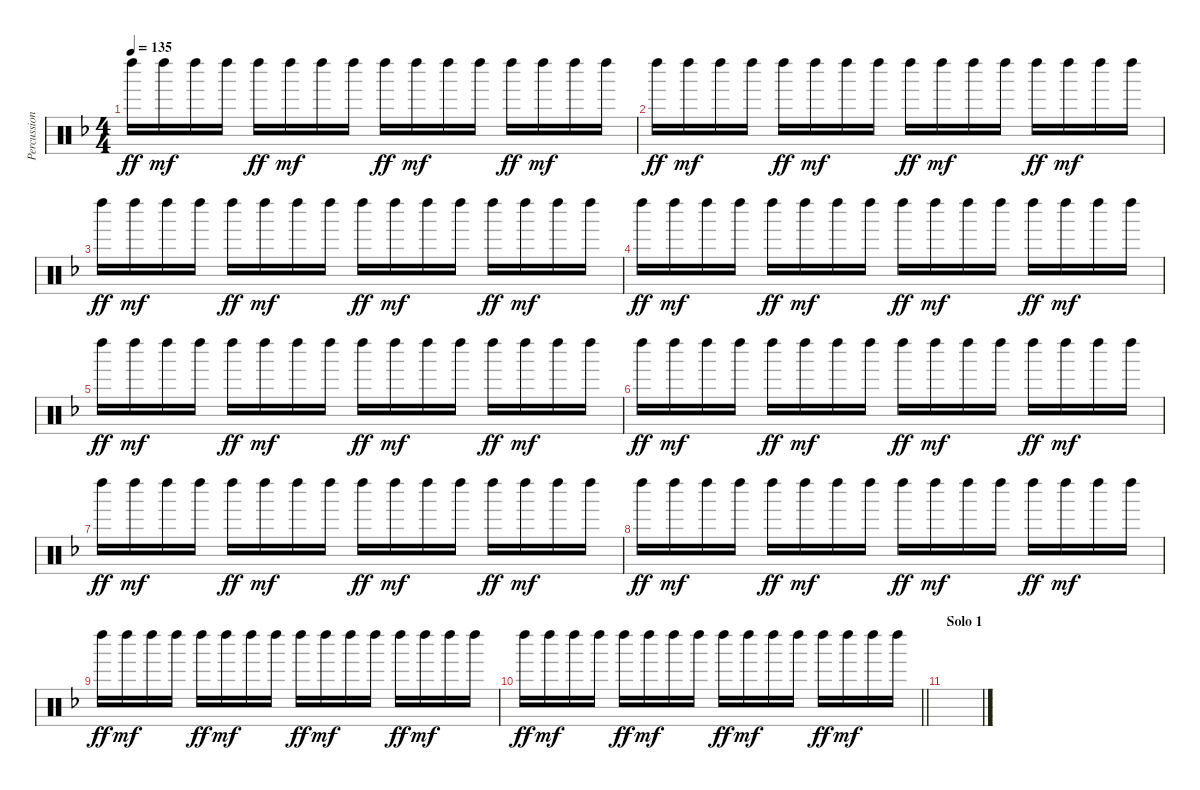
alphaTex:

\track ("Percussions" "Percussion") {instrument percussion}
\staff {score}
\articulation defaults
\ts (4 4)
\tempo 135
\clef neutral
\ks f "Left Maraca (hit)".16{dy ff} "Left Maraca (hit)".16{dy mf} "Left Maraca (hit)".16 "Left Maraca (hit)".16 "Left Maraca (hit)".16{dy ff} "Left Maraca (hit)".16{dy mf} "Left Maraca (hit)".16 "Left Maraca (hit)".16 "Left Maraca (hit)".16{dy ff} "Left Maraca (hit)".16{dy mf} "Left Maraca (hit)".16 "Left Maraca (hit)".16 "Left Maraca (hit)".16{dy ff} "Left Maraca (hit)".16{dy mf} "Left Maraca (hit)".16 "Left Maraca (hit)".16
|
"Left Maraca (hit)".16{dy ff} "Left Maraca (hit)".16{dy mf} "Left Maraca (hit)".16 "Left Maraca (hit)".16 "Left Maraca (hit)".16{dy ff} "Left Maraca (hit)".16{dy mf} "Left Maraca (hit)".16 "Left Maraca (hit)".16 "Left Maraca (hit)".16{dy ff} "Left Maraca (hit)".16{dy mf} "Left Maraca (hit)".16 "Left Maraca (hit)".16 "Left Maraca (hit)".16{dy ff} "Left Maraca (hit)".16{dy mf} "Left Maraca (hit)".16 "Left Maraca (hit)".16 |
"Left Maraca (hit)".16{dy ff} "Left Maraca (hit)".16{dy mf} "Left Maraca (hit)".16 "Left Maraca (hit)".16 "Left Maraca (hit)".16{dy ff} "Left Maraca (hit)".16{dy mf} "Left Maraca (hit)".16 "Left Maraca (hit)".16 "Left Maraca (hit)".16{dy ff} "Left Maraca (hit)".16{dy mf} "Left Maraca (hit)".16 "Left Maraca (hit)".16 "Left Maraca (hit)".16{dy ff} "Left Maraca (hit)".16{dy mf} "Left Maraca (hit)".16 "Left Maraca (hit)".16 |
"Left Maraca (hit)".16{dy ff} "Left Maraca (hit)".16{dy mf} "Left Maraca (hit)".16 "Left Maraca (hit)".16 "Left Maraca (hit)".16{dy ff} "Left Maraca (hit)".16{dy mf} "Left Maraca (hit)".16 "Left Maraca (hit)".16 "Left Maraca (hit)".16{dy ff} "Left Maraca (hit)".16{dy mf} "Left Maraca (hit)".16 "Left Maraca (hit)".16 "Left Maraca (hit)".16{dy ff} "Left Maraca (hit)".16{dy mf} "Left Maraca (hit)".16 "Left Maraca (hit)".16 |
"Left Maraca (hit)".16{dy ff} "Left Maraca (hit)".16{dy mf} "Left Maraca (hit)".16 "Left Maraca (hit)".16 "Left Maraca (hit)".16{dy ff} "Left Maraca (hit)".16{dy mf} "Left Maraca (hit)".16 "Left Maraca (hit)".16 "Left Maraca (hit)".16{dy ff} "Left Maraca (hit)".16{dy mf} "Left Maraca (hit)".16 "Left Maraca (hit)".16 "Left Maraca (hit)".16{dy ff} "Left Maraca (hit)".16{dy mf} "Left Maraca (hit)".16 "Left Maraca (hit)".16 |
"Left Maraca (hit)".16{dy ff} "Left Maraca (hit)".16{dy mf} "Left Maraca (hit)".16 "Left Maraca (hit)".16 "Left Maraca (hit)".16{dy ff} "Left Maraca (hit)".16{dy mf} "Left Maraca (hit)".16 "Left Maraca (hit)".16 "Left Maraca (hit)".16{dy ff} "Left Maraca (hit)".16{dy mf} "Left Maraca (hit)".16 "Left Maraca (hit)".16 "Left Maraca (hit)".16{dy ff} "Left Maraca (hit)".16{dy mf} "Left Maraca (hit)".16 "Left Maraca (hit)".16 |
"Left Maraca (hit)".16{dy ff} "Left Maraca (hit)".16{dy mf} "Left Maraca (hit)".16 "Left Maraca (hit)".16 "Left Maraca (hit)".16{dy ff} "Left Maraca (hit)".16{dy mf} "Left Maraca (hit)".16 "Left Maraca (hit)".16 "Left Maraca (hit)".16{dy ff} "Left Maraca (hit)".16{dy mf} "Left Maraca (hit)".16 "Left Maraca (hit)".16 "Left Maraca (hit)".16{dy ff} "Left Maraca (hit)".16{dy mf} "Left Maraca (hit)".16 "Left Maraca (hit)".16 |
"Left Maraca (hit)".16{dy ff} "Left Maraca (hit)".16{dy mf} "Left Maraca (hit)".16 "Left Maraca (hit)".16 "Left Maraca (hit)".16{dy ff} "Left Maraca (hit)".16{dy mf} "Left Maraca (hit)".16 "Left Maraca (hit)".16 "Left Maraca (hit)".16{dy ff} "Left Maraca (hit)".16{dy mf} "Left Maraca (hit)".16 "Left Maraca (hit)".16 "Left Maraca (hit)".16{dy ff} "Left Maraca (hit)".16{dy mf} "Left Maraca (hit)".16 "Left Maraca (hit)".16 |
"Left Maraca (hit)".16{dy ff} "Left Maraca (hit)".16{dy mf} "Left Maraca (hit)".16 "Left Maraca (hit)".16 "Left Maraca (hit)".16{dy ff} "Left Maraca (hit)".16{dy mf} "Left Maraca (hit)".16 "Left Maraca (hit)".16 "Left Maraca (hit)".16{dy ff} "Left Maraca (hit)".16{dy mf} "Left Maraca (hit)".16 "Left Maraca (hit)".16 "Left Maraca (hit)".16{dy ff} "Left Maraca (hit)".16{dy mf} "Left Maraca (hit)".16 "Left Maraca (hit)".16 |
\barLineRight lightlight "Left Maraca (hit)".16{dy ff} "Left Maraca (hit)".16{dy mf} "Left Maraca (hit)".16 "Left Maraca (hit)".16 "Left Maraca (hit)".16{dy ff} "Left Maraca (hit)".16{dy mf} "Left Maraca (hit)".16 "Left Maraca (hit)".16 "Left Maraca (hit)".16{dy ff} "Left Maraca (hit)".16{dy mf} "Left Maraca (hit)".16 "Left Maraca (hit)".16 "Left Maraca (hit)".16{dy ff} "Left Maraca (hit)".16{dy mf} "Left Maraca (hit)".16 "Left Maraca (hit)".16
|
\section ("" "Solo 1")
